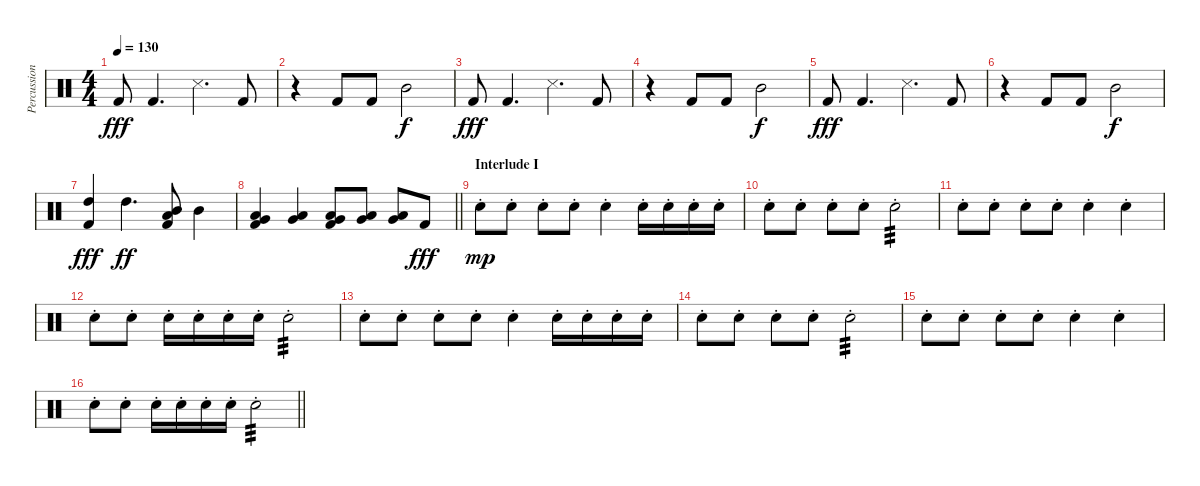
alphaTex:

\track ("Percussions" "Percussion") {instrument percussion}
\staff {score}
\articulation defaults
\ts (4 4)
\tempo 130
\clef neutral
\ks c "Kick (hit) 2".8{dy fff} "Kick (hit) 2".4{d} "Snare (side stick) 3".4{d} "Kick (hit) 2".8
|
r.4 "Kick (hit) 2".8 "Kick (hit) 2".8 "Mid Tom (hit)".2{dy f} |
"Kick (hit) 2".8{dy fff} "Kick (hit) 2".4{d} "Snare (side stick) 3".4{d} "Kick (hit) 2".8 |
r.4 "Kick (hit) 2".8 "Kick (hit) 2".8 "Mid Tom (hit)".2{dy f} |
"Kick (hit) 2".8{dy fff} "Kick (hit) 2".4{d} "Snare (side stick) 3".4{d} "Kick (hit) 2".8 |
r.4 "Kick (hit) 2".8 "Kick (hit) 2".8 "Mid Tom (hit)".2{dy f} |
("High Tom (hit)" "Kick (hit) 2").4{dy fff} "High Tom (hit)".4{d dy ff} ("Kick (hit) 2" "Mid Tom (hit)" "Low Tom (hit)").8 "Mid Tom (hit)".4 |
\barLineRight lightlight
("Kick (hit) 2" "Low Tom (hit)" "Very Low Tom (hit)").4 ("Low Tom (hit)" "Very Low Tom (hit)").4 ("Kick (hit) 2" "Very Low Tom (hit)" "Low Floor Tom (hit)").8 ("Very Low Tom (hit)" "Low Floor Tom (hit)").8 ("Very Low Tom (hit)" "Low Floor Tom (hit)").8 "Kick (hit) 2".8{dy fff} |
\section ("" "Interlude I")
"Electric Snare (hit)"{st}.8{dy mp} "Electric Snare (hit)"{st}.8 "Electric Snare (hit)"{st}.8 "Electric Snare (hit)"{st}.8 "Electric Snare (hit)"{st}.4 "Electric Snare (hit)"{st}.16 "Electric Snare (hit)"{st}.16 "Electric Snare (hit)"{st}.16 "Electric Snare (hit)"{st}.16 |
"Electric Snare (hit)"{st}.8 "Electric Snare (hit)"{st}.8 "Electric Snare (hit)"{st}.8 "Electric Snare (hit)"{st}.8 "Electric Snare (hit)"{st}.2{tp 3} |
"Electric Snare (hit)"{st}.8 "Electric Snare (hit)"{st}.8 "Electric Snare (hit)"{st}.8 "Electric Snare (hit)"{st}.8 "Electric Snare (hit)"{st}.4 "Electric Snare (hit)"{st}.4 |
"Electric Snare (hit)"{st}.8 "Electric Snare (hit)"{st}.8 "Electric Snare (hit)"{st}.16 "Electric Snare (hit)"{st}.16 "Electric Snare (hit)"{st}.16 "Electric Snare (hit)"{st}.16 "Electric Snare (hit)"{st}.2{tp 3} |
"Electric Snare (hit)"{st}.8 "Electric Snare (hit)"{st}.8 "Electric Snare (hit)"{st}.8 "Electric Snare (hit)"{st}.8 "Electric Snare (hit)"{st}.4 "Electric Snare (hit)"{st}.16 "Electric Snare (hit)"{st}.16 "Electric Snare (hit)"{st}.16 "Electric Snare (hit)"{st}.16 |
"Electric Snare (hit)"{st}.8 "Electric Snare (hit)"{st}.8 "Electric Snare (hit)"{st}.8 "Electric Snare (hit)"{st}.8 "Electric Snare (hit)"{st}.2{tp 3} |
"Electric Snare (hit)"{st}.8 "Electric Snare (hit)"{st}.8 "Electric Snare (hit)"{st}.8 "Electric Snare (hit)"{st}.8 "Electric Snare (hit)"{st}.4 "Electric Snare (hit)"{st}.4 |
\barLineRight lightlight "Electric Snare (hit)"{st}.8 "Electric Snare (hit)"{st}.8 "Electric Snare (hit)"{st}.16 "Electric Snare (hit)"{st}.16 "Electric Snare (hit)"{st}.16 "Electric Snare (hit)"{st}.16 "Electric Snare (hit)"{st}.2{tp 3}
